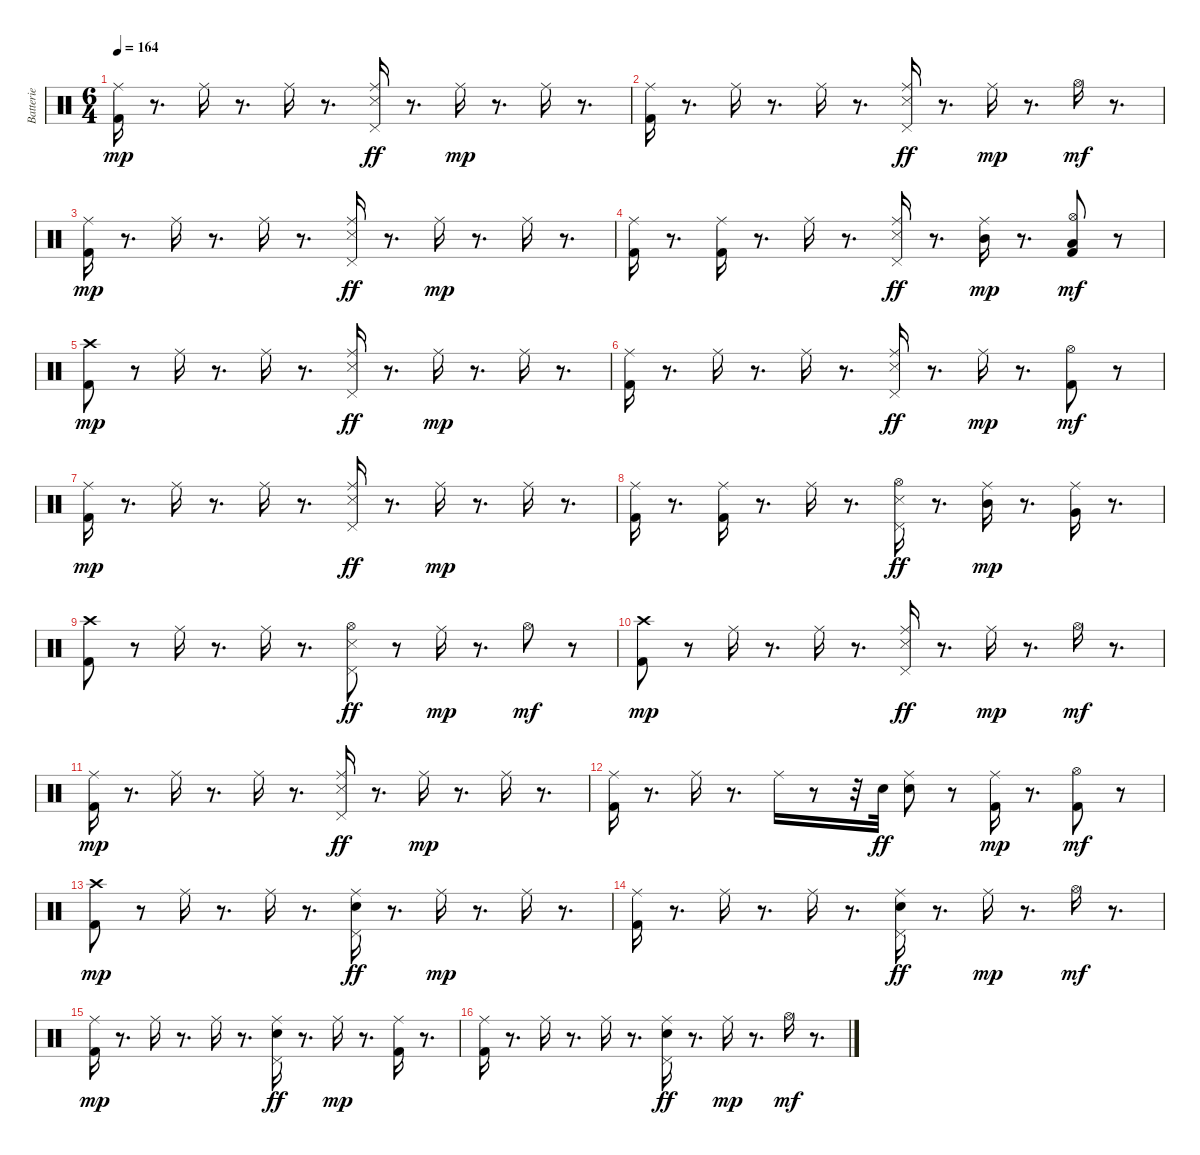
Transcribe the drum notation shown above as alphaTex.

\track ("Batterie" "Batterie") {instrument percussion}
\staff {score}
\articulation defaults
\ts (6 4)
\tempo 164
\clef neutral
\ks c
("Kick (hit) 2" "Ride (middle)").16{dy mp} r.8{d} "Ride (middle)".16 r.8{d} "Ride (middle)".16 r.8{d} ("Snare (side stick) 3" "Ride (middle)" "Pedal Hi-Hat (hit)").16{dy ff} r.8{d} "Ride (middle)".16{dy mp} r.8{d} "Ride (middle)".16 r.8{d} |
("Kick (hit) 2" "Ride (middle)").16 r.8{d} "Ride (middle)".16 r.8{d} "Ride (middle)".16 r.8{d} ("Snare (side stick) 3" "Ride (middle)" "Pedal Hi-Hat (hit)").16{dy ff} r.8{d} "Ride (middle)".16{dy mp} r.8{d} "Hi-Hat (open)".16{dy mf} r.8{d} |
("Kick (hit) 2" "Ride (middle)").16{dy mp} r.8{d} "Ride (middle)".16 r.8{d} "Ride (middle)".16 r.8{d} ("Snare (side stick) 3" "Ride (middle)" "Pedal Hi-Hat (hit)").16{dy ff} r.8{d} "Ride (middle)".16{dy mp} r.8{d} "Ride (middle)".16 r.8{d} |
("Kick (hit) 2" "Ride (middle)").16 r.8{d} ("Kick (hit) 2" "Ride (middle)").16 r.8{d} "Ride (middle)".16 r.8{d} ("Snare (side stick) 3" "Ride (middle)" "Pedal Hi-Hat (hit)").16{dy ff} r.8{d} ("Ride (middle)" "Mid Tom (hit)").16{dy mp} r.8{d} ("Kick (hit) 2" "Hi-Hat (open)" "Low Floor Tom (hit)").8{dy mf} r.8 |
("Kick (hit) 2" "Crash high (hit)").8{dy mp} r.8 "Ride (middle)".16 r.8{d} "Ride (middle)".16 r.8{d} ("Snare (side stick) 3" "Ride (middle)" "Pedal Hi-Hat (hit)").16{dy ff} r.8{d} "Ride (middle)".16{dy mp} r.8{d} "Ride (middle)".16 r.8{d} |
("Kick (hit) 2" "Ride (middle)").16 r.8{d} "Ride (middle)".16 r.8{d} "Ride (middle)".16 r.8{d} ("Snare (side stick) 3" "Ride (middle)" "Pedal Hi-Hat (hit)").16{dy ff} r.8{d} "Ride (middle)".16{dy mp} r.8{d} ("Kick (hit) 2" "Hi-Hat (open)").8{dy mf} r.8 |
("Kick (hit) 2" "Ride (middle)").16{dy mp} r.8{d} "Ride (middle)".16 r.8{d} "Ride (middle)".16 r.8{d} ("Snare (side stick) 3" "Ride (middle)" "Pedal Hi-Hat (hit)").16{dy ff} r.8{d} "Ride (middle)".16{dy mp} r.8{d} "Ride (middle)".16 r.8{d} |
("Kick (hit) 2" "Ride (middle)").16 r.8{d} ("Kick (hit) 2" "Ride (middle)").16 r.8{d} "Ride (middle)".16 r.8{d} ("Snare (side stick) 3" "Hi-Hat (open)" "Pedal Hi-Hat (hit)").16{dy ff} r.8{d} ("Ride (middle)" "Mid Tom (hit)").16{dy mp} r.8{d} ("Ride (middle)" "Very Low Tom (hit)").16 r.8{d} |
("Kick (hit) 2" "Crash high (hit)").8 r.8 "Ride (middle)".16 r.8{d} "Ride (middle)".16 r.8{d} ("Snare (side stick) 3" "Hi-Hat (open)" "Pedal Hi-Hat (hit)").8{dy ff} r.8 "Ride (middle)".16{dy mp} r.8{d} "Hi-Hat (open)".8{dy mf} r.8 |
("Kick (hit) 2" "Crash high (hit)").8{dy mp} r.8 "Ride (middle)".16 r.8{d} "Ride (middle)".16 r.8{d} ("Snare (side stick) 3" "Ride (middle)" "Pedal Hi-Hat (hit)").16{dy ff} r.8{d} "Ride (middle)".16{dy mp} r.8{d} "Hi-Hat (open)".16{dy mf} r.8{d} |
("Kick (hit) 2" "Ride (middle)").16{dy mp} r.8{d} "Ride (middle)".16 r.8{d} "Ride (middle)".16 r.8{d} ("Snare (side stick) 3" "Ride (middle)" "Pedal Hi-Hat (hit)").16{dy ff} r.8{d} "Ride (middle)".16{dy mp} r.8{d} "Ride (middle)".16 r.8{d} |
("Kick (hit) 2" "Ride (middle)").16 r.8{d} "Ride (middle)".16 r.8{d} "Ride (middle)".16 r.8 r.32 "Electric Snare (hit)".32{dy ff} ("Ride (middle)" "Electric Snare (hit)").8 r.8 ("Kick (hit) 2" "Ride (middle)").16{dy mp} r.8{d} ("Kick (hit) 2" "Hi-Hat (open)").8{dy mf} r.8 |
("Kick (hit) 2" "Crash high (hit)").8{dy mp} r.8 "Ride (middle)".16 r.8{d} "Ride (middle)".16 r.8{d} ("Ride (middle)" "Pedal Hi-Hat (hit)" "Electric Snare (hit)").16{dy ff} r.8{d} "Ride (middle)".16{dy mp} r.8{d} "Ride (middle)".16 r.8{d} |
("Kick (hit) 2" "Ride (middle)").16 r.8{d} "Ride (middle)".16 r.8{d} "Ride (middle)".16 r.8{d} ("Ride (middle)" "Pedal Hi-Hat (hit)" "Electric Snare (hit)").16{dy ff} r.8{d} "Ride (middle)".16{dy mp} r.8{d} "Hi-Hat (open)".16{dy mf} r.8{d} |
("Kick (hit) 2" "Ride (middle)").16{dy mp} r.8{d} "Ride (middle)".16 r.8{d} "Ride (middle)".16 r.8{d} ("Ride (middle)" "Pedal Hi-Hat (hit)" "Electric Snare (hit)").16{dy ff} r.8{d} "Ride (middle)".16{dy mp} r.8{d} ("Kick (hit) 2" "Ride (middle)").16 r.8{d} |
("Kick (hit) 2" "Ride (middle)").16 r.8{d} "Ride (middle)".16 r.8{d} "Ride (middle)".16 r.8{d} ("Ride (middle)" "Pedal Hi-Hat (hit)" "Electric Snare (hit)").16{dy ff} r.8{d} "Ride (middle)".16{dy mp} r.8{d} "Hi-Hat (open)".16{dy mf} r.8{d}
